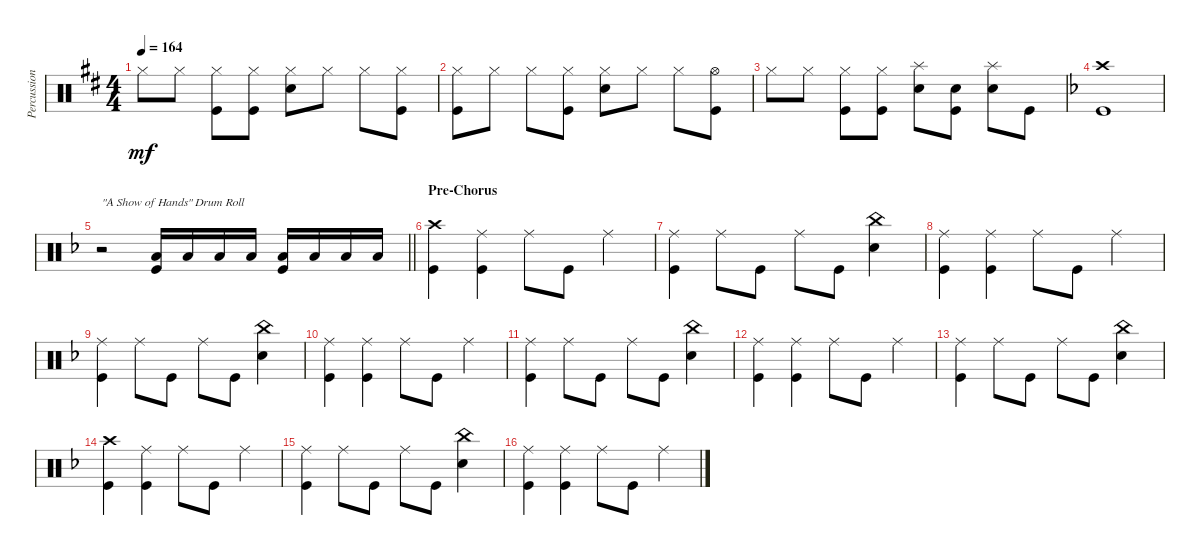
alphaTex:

\track ("Percussions" "Percussion") {instrument percussion}
\staff {score}
\articulation defaults
\ts (4 4)
\tempo 164
\clef neutral
\ks bminor "Hi-Hat (closed)".8{dy mf} "Hi-Hat (closed)".8
("Hi-Hat (closed)" "Kick (hit)").8 ("Hi-Hat (closed)" "Kick (hit)").8 ("Hi-Hat (closed)" "Electric Snare (hit)").8 "Hi-Hat (closed)".8 "Hi-Hat (closed)".8 ("Hi-Hat (closed)" "Kick (hit)").8 |
("Hi-Hat (closed)" "Kick (hit)").8 "Hi-Hat (closed)".8 "Hi-Hat (closed)".8 ("Hi-Hat (closed)" "Kick (hit)").8 ("Hi-Hat (closed)" "Electric Snare (hit)").8 "Hi-Hat (closed)".8 "Hi-Hat (closed)".8 ("Hi-Hat (open)" "Kick (hit)").8 |
"Hi-Hat (closed)".8 "Hi-Hat (closed)".8 ("Hi-Hat (closed)" "Kick (hit)").8 ("Hi-Hat (closed)" "Kick (hit)").8 ("Splash (hit)" "Electric Snare (hit)").8 ("Electric Snare (hit)" "Kick (hit)").8 ("Splash (hit)" "Electric Snare (hit)").8 "Kick (hit)".8 |
\ks dminor
("Crash high (hit)" "Kick (hit)").1 |
\barLineRight lightlight
r.2{txt "\"A Show of Hands\" Drum Roll"} ("Low Floor Tom (hit)" "Kick (hit)").16 "Low Floor Tom (hit)".16 "Low Floor Tom (hit)".16 "Low Floor Tom (hit)".16 ("Low Floor Tom (hit)" "Kick (hit)").16 "Low Floor Tom (hit)".16 "Low Floor Tom (hit)".16 "Low Floor Tom (hit)".16 |
\section ("" "Pre-Chorus")
("Crash high (hit)" "Kick (hit)").4 ("Ride (middle)" "Kick (hit)").4 "Ride (middle)".8 "Kick (hit)".8 "Ride (middle)".4 |
("Ride (middle)" "Kick (hit)").4 "Ride (middle)".8 "Kick (hit)".8 "Ride (middle)".8 "Kick (hit)".8 ("China (hit)" "Electric Snare (hit)").4 |
("Ride (middle)" "Kick (hit)").4 ("Ride (middle)" "Kick (hit)").4 "Ride (middle)".8 "Kick (hit)".8 "Ride (middle)".4 |
("Ride (middle)" "Kick (hit)").4 "Ride (middle)".8 "Kick (hit)".8 "Ride (middle)".8 "Kick (hit)".8 ("China (hit)" "Electric Snare (hit)").4 |
("Ride (middle)" "Kick (hit)").4 ("Ride (middle)" "Kick (hit)").4 "Ride (middle)".8 "Kick (hit)".8 "Ride (middle)".4 |
("Ride (middle)" "Kick (hit)").4 "Ride (middle)".8 "Kick (hit)".8 "Ride (middle)".8 "Kick (hit)".8 ("China (hit)" "Electric Snare (hit)").4 |
("Ride (middle)" "Kick (hit)").4 ("Ride (middle)" "Kick (hit)").4 "Ride (middle)".8 "Kick (hit)".8 "Ride (middle)".4 |
("Ride (middle)" "Kick (hit)").4 "Ride (middle)".8 "Kick (hit)".8 "Ride (middle)".8 "Kick (hit)".8 ("China (hit)" "Electric Snare (hit)").4 |
("Crash high (hit)" "Kick (hit)").4 ("Ride (middle)" "Kick (hit)").4 "Ride (middle)".8 "Kick (hit)".8 "Ride (middle)".4 |
("Ride (middle)" "Kick (hit)").4 "Ride (middle)".8 "Kick (hit)".8 "Ride (middle)".8 "Kick (hit)".8 ("China (hit)" "Electric Snare (hit)").4 |
("Ride (middle)" "Kick (hit)").4 ("Ride (middle)" "Kick (hit)").4 "Ride (middle)".8 "Kick (hit)".8 "Ride (middle)".4
